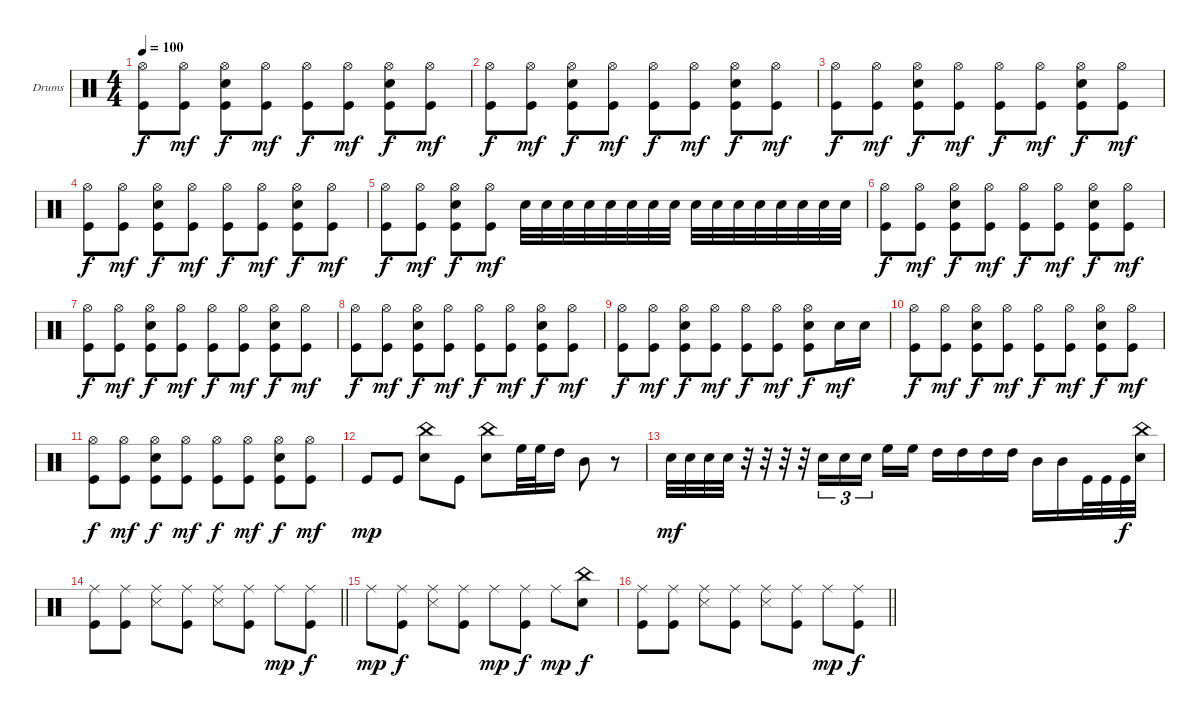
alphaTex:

\bracketExtendMode groupsimilarinstruments
\firstSystemTrackNameOrientation horizontal
\otherSystemsTrackNameOrientation horizontal
\track ("Drumkit" "Drums") {instrument percussion}
\staff {score}
\articulation defaults
\ts (4 4)
\tempo 100
\clef neutral
\ks c
("Hi-Hat (open)" "Kick (hit)").8{dy f} ("Hi-Hat (open)" "Kick (hit)").8{dy mf} ("Hi-Hat (open)" "Kick (hit)" "Snare (hit) 2").8{dy f} ("Hi-Hat (open)" "Kick (hit)").8{dy mf} ("Hi-Hat (open)" "Kick (hit)").8{dy f} ("Hi-Hat (open)" "Kick (hit)").8{dy mf} ("Hi-Hat (open)" "Kick (hit)" "Snare (hit) 2").8{dy f} ("Hi-Hat (open)" "Kick (hit)").8{dy mf} |
("Hi-Hat (open)" "Kick (hit)").8{dy f} ("Hi-Hat (open)" "Kick (hit)").8{dy mf} ("Hi-Hat (open)" "Kick (hit)" "Snare (hit) 2").8{dy f} ("Hi-Hat (open)" "Kick (hit)").8{dy mf} ("Hi-Hat (open)" "Kick (hit)").8{dy f} ("Hi-Hat (open)" "Kick (hit)").8{dy mf} ("Hi-Hat (open)" "Kick (hit)" "Snare (hit) 2").8{dy f} ("Hi-Hat (open)" "Kick (hit)").8{dy mf} |
("Hi-Hat (open)" "Kick (hit)").8{dy f} ("Hi-Hat (open)" "Kick (hit)").8{dy mf} ("Hi-Hat (open)" "Kick (hit)" "Snare (hit) 2").8{dy f} ("Hi-Hat (open)" "Kick (hit)").8{dy mf} ("Hi-Hat (open)" "Kick (hit)").8{dy f} ("Hi-Hat (open)" "Kick (hit)").8{dy mf} ("Hi-Hat (open)" "Kick (hit)" "Snare (hit) 2").8{dy f} ("Hi-Hat (open)" "Kick (hit)").8{dy mf} |
("Hi-Hat (open)" "Kick (hit)").8{dy f} ("Hi-Hat (open)" "Kick (hit)").8{dy mf} ("Hi-Hat (open)" "Kick (hit)" "Snare (hit) 2").8{dy f} ("Hi-Hat (open)" "Kick (hit)").8{dy mf} ("Hi-Hat (open)" "Kick (hit)").8{dy f} ("Hi-Hat (open)" "Kick (hit)").8{dy mf} ("Hi-Hat (open)" "Kick (hit)" "Snare (hit) 2").8{dy f} ("Hi-Hat (open)" "Kick (hit)").8{dy mf} |
("Hi-Hat (open)" "Kick (hit)").8{dy f} ("Hi-Hat (open)" "Kick (hit)").8{dy mf} ("Hi-Hat (open)" "Kick (hit)" "Snare (hit) 2").8{dy f} ("Hi-Hat (open)" "Kick (hit)").8{dy mf} "Snare (hit) 2".32 "Snare (hit) 2".32 "Snare (hit) 2".32 "Snare (hit) 2".32 "Snare (hit) 2".32 "Snare (hit) 2".32 "Snare (hit) 2".32 "Snare (hit) 2".32 "Snare (hit) 2".32 "Snare (hit) 2".32 "Snare (hit) 2".32 "Snare (hit) 2".32 "Snare (hit) 2".32 "Snare (hit) 2".32 "Snare (hit) 2".32 "Snare (hit) 2".32 |
("Hi-Hat (open)" "Kick (hit)").8{dy f} ("Hi-Hat (open)" "Kick (hit)").8{dy mf} ("Hi-Hat (open)" "Kick (hit)" "Snare (hit) 2").8{dy f} ("Hi-Hat (open)" "Kick (hit)").8{dy mf} ("Hi-Hat (open)" "Kick (hit)").8{dy f} ("Hi-Hat (open)" "Kick (hit)").8{dy mf} ("Hi-Hat (open)" "Kick (hit)" "Snare (hit) 2").8{dy f} ("Hi-Hat (open)" "Kick (hit)").8{dy mf} |
("Hi-Hat (open)" "Kick (hit)").8{dy f} ("Hi-Hat (open)" "Kick (hit)").8{dy mf} ("Hi-Hat (open)" "Kick (hit)" "Snare (hit) 2").8{dy f} ("Hi-Hat (open)" "Kick (hit)").8{dy mf} ("Hi-Hat (open)" "Kick (hit)").8{dy f} ("Hi-Hat (open)" "Kick (hit)").8{dy mf} ("Hi-Hat (open)" "Kick (hit)" "Snare (hit) 2").8{dy f} ("Hi-Hat (open)" "Kick (hit)").8{dy mf} |
("Hi-Hat (open)" "Kick (hit)").8{dy f} ("Hi-Hat (open)" "Kick (hit)").8{dy mf} ("Hi-Hat (open)" "Kick (hit)" "Snare (hit) 2").8{dy f} ("Hi-Hat (open)" "Kick (hit)").8{dy mf} ("Hi-Hat (open)" "Kick (hit)").8{dy f} ("Hi-Hat (open)" "Kick (hit)").8{dy mf} ("Hi-Hat (open)" "Kick (hit)" "Snare (hit) 2").8{dy f} ("Hi-Hat (open)" "Kick (hit)").8{dy mf} |
("Hi-Hat (open)" "Kick (hit)").8{dy f} ("Hi-Hat (open)" "Kick (hit)").8{dy mf} ("Hi-Hat (open)" "Kick (hit)" "Snare (hit) 2").8{dy f} ("Hi-Hat (open)" "Kick (hit)").8{dy mf} ("Hi-Hat (open)" "Kick (hit)").8{dy f} ("Hi-Hat (open)" "Kick (hit)").8{dy mf} ("Hi-Hat (open)" "Kick (hit)" "Snare (hit) 2").8{dy f} "Snare (hit) 2".16{dy mf} "Snare (hit) 2".16 |
("Hi-Hat (open)" "Kick (hit)").8{dy f} ("Hi-Hat (open)" "Kick (hit)").8{dy mf} ("Hi-Hat (open)" "Kick (hit)" "Snare (hit) 2").8{dy f} ("Hi-Hat (open)" "Kick (hit)").8{dy mf} ("Hi-Hat (open)" "Kick (hit)").8{dy f} ("Hi-Hat (open)" "Kick (hit)").8{dy mf} ("Hi-Hat (open)" "Kick (hit)" "Snare (hit) 2").8{dy f} ("Hi-Hat (open)" "Kick (hit)").8{dy mf} |
("Hi-Hat (open)" "Kick (hit)").8{dy f} ("Hi-Hat (open)" "Kick (hit)").8{dy mf} ("Hi-Hat (open)" "Kick (hit)" "Snare (hit) 2").8{dy f} ("Hi-Hat (open)" "Kick (hit)").8{dy mf} ("Hi-Hat (open)" "Kick (hit)").8{dy f} ("Hi-Hat (open)" "Kick (hit)").8{dy mf} ("Hi-Hat (open)" "Kick (hit)" "Snare (hit) 2").8{dy f} ("Hi-Hat (open)" "Kick (hit)").8{dy mf} |
"Kick (hit)".8{dy mp} "Kick (hit)".8 ("Snare (hit) 2" "China (hit)").8 "Kick (hit)".8 ("Snare (hit) 2" "China (hit)").8 "High Floor Tom (hit)".32 "High Floor Tom (hit)".32 "High Tom (hit)".16 "Mid Tom (hit)".8 r.8 |
"Snare (hit) 2".32{dy mf} "Snare (hit) 2".32 "Snare (hit) 2".32 "Snare (hit) 2".32 r.32 r.32 r.32 r.32 "Snare (hit) 2".16{tu (3 2)} "Snare (hit) 2".16{tu (3 2)} "Snare (hit) 2".16{tu (3 2)} "High Floor Tom (hit)".16 "High Floor Tom (hit)".16 "High Tom (hit)".16 "High Tom (hit)".16 "High Tom (hit)".16 "High Tom (hit)".16 "Mid Tom (hit)".16 "Mid Tom (hit)".16 "Kick (hit)".32 "Kick (hit)".32 "Kick (hit)".32{dy f} ("Snare (hit) 2" "China (hit)").32 |
\barLineRight lightlight
("Kick (hit)" "Ride (middle)").8 ("Kick (hit)" "Ride (middle)").8 ("Snare (side stick) 3" "Ride (middle)").8 ("Kick (hit)" "Ride (middle)").8 ("Snare (side stick) 3" "Ride (middle)").8 ("Kick (hit)" "Ride (middle)").8 "Ride (middle)".8{dy mp} ("Kick (hit)" "Ride (middle)").8{dy f} |
"Ride (middle)".8{dy mp} ("Kick (hit)" "Ride (middle)").8{dy f} ("Snare (side stick) 3" "Ride (middle)").8 ("Kick (hit)" "Ride (middle)").8 "Ride (middle)".8{dy mp} ("Kick (hit)" "Ride (middle)").8{dy f} "Ride (middle)".8{dy mp} ("Snare (hit) 2" "China (hit)").8{dy f} |
\barLineRight lightlight
("Kick (hit)" "Ride (middle)").8 ("Kick (hit)" "Ride (middle)").8 ("Snare (side stick) 3" "Ride (middle)").8 ("Kick (hit)" "Ride (middle)").8 ("Snare (side stick) 3" "Ride (middle)").8 ("Kick (hit)" "Ride (middle)").8 "Ride (middle)".8{dy mp} ("Kick (hit)" "Ride (middle)").8{dy f}
